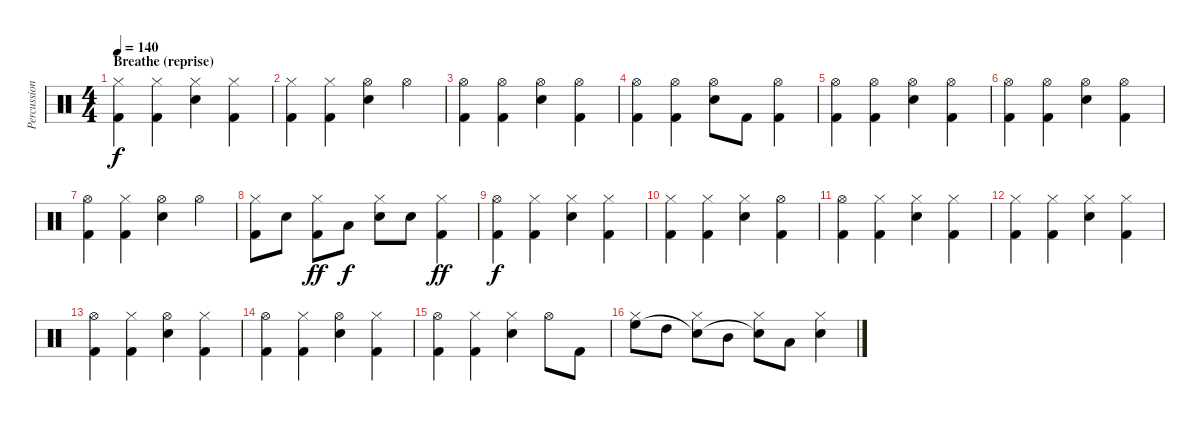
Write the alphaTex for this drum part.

\track ("Percussion" "Percussion") {instrument percussion}
\staff {score}
\articulation defaults
\ts (4 4)
\section ("" "Breathe (reprise)")
\tempo 140
\clef neutral
\ks c
("Hi-Hat (closed)" "Kick (hit) 2").4{dy f} ("Hi-Hat (closed)" "Kick (hit) 2").4 ("Hi-Hat (closed)" "Electric Snare (hit)").4 ("Hi-Hat (closed)" "Kick (hit) 2").4 |
("Hi-Hat (closed)" "Kick (hit) 2").4 ("Hi-Hat (closed)" "Kick (hit) 2").4 ("Hi-Hat (open)" "Electric Snare (hit)").4 "Hi-Hat (open)".4 |
("Hi-Hat (open)" "Kick (hit) 2").4 ("Hi-Hat (open)" "Kick (hit) 2").4 ("Hi-Hat (open)" "Electric Snare (hit)").4 ("Hi-Hat (open)" "Kick (hit) 2").4 |
("Hi-Hat (open)" "Kick (hit) 2").4 ("Hi-Hat (open)" "Kick (hit) 2").4 ("Hi-Hat (open)" "Electric Snare (hit)").8 "Kick (hit) 2".8 ("Hi-Hat (open)" "Kick (hit) 2").4 |
("Hi-Hat (open)" "Kick (hit) 2").4 ("Hi-Hat (open)" "Kick (hit) 2").4 ("Hi-Hat (open)" "Electric Snare (hit)").4 ("Hi-Hat (open)" "Kick (hit) 2").4 |
("Hi-Hat (open)" "Kick (hit) 2").4 ("Hi-Hat (open)" "Kick (hit) 2").4 ("Hi-Hat (open)" "Electric Snare (hit)").4 ("Hi-Hat (open)" "Kick (hit) 2").4 |
("Hi-Hat (open)" "Kick (hit) 2").4 ("Hi-Hat (closed)" "Kick (hit) 2").4 ("Hi-Hat (open)" "Electric Snare (hit)").4 "Hi-Hat (open)".4 |
("Hi-Hat (closed)" "Kick (hit) 2").8 "Electric Snare (hit)".8 ("Hi-Hat (closed)" "Kick (hit) 2").8{dy ff} "Low Tom (hit)".8{dy f} ("Hi-Hat (closed)" "Electric Snare (hit)").8 "Electric Snare (hit)".8 ("Hi-Hat (closed)" "Kick (hit) 2").4{dy ff} |
("Hi-Hat (open)" "Kick (hit) 2").4{dy f} ("Hi-Hat (closed)" "Kick (hit) 2").4 ("Hi-Hat (closed)" "Electric Snare (hit)").4 ("Hi-Hat (closed)" "Kick (hit) 2").4 |
("Hi-Hat (closed)" "Kick (hit) 2").4 ("Hi-Hat (closed)" "Kick (hit) 2").4 ("Hi-Hat (closed)" "Electric Snare (hit)").4 ("Hi-Hat (open)" "Kick (hit) 2").4 |
("Hi-Hat (open)" "Kick (hit) 2").4 ("Hi-Hat (closed)" "Kick (hit) 2").4 ("Hi-Hat (closed)" "Electric Snare (hit)").4 ("Hi-Hat (closed)" "Kick (hit) 2").4 |
("Hi-Hat (closed)" "Kick (hit) 2").4 ("Hi-Hat (closed)" "Kick (hit) 2").4 ("Hi-Hat (closed)" "Electric Snare (hit)").4 ("Hi-Hat (closed)" "Kick (hit) 2").4 |
("Hi-Hat (open)" "Kick (hit) 2").4 ("Hi-Hat (closed)" "Kick (hit) 2").4 ("Hi-Hat (open)" "Electric Snare (hit)").4 ("Hi-Hat (closed)" "Kick (hit) 2").4 |
("Hi-Hat (open)" "Kick (hit) 2").4 ("Hi-Hat (closed)" "Kick (hit) 2").4 ("Hi-Hat (open)" "Electric Snare (hit)").4 ("Hi-Hat (closed)" "Kick (hit) 2").4 |
("Hi-Hat (open)" "Kick (hit) 2").4 ("Hi-Hat (closed)" "Kick (hit) 2").4 ("Hi-Hat (closed)" "Electric Snare (hit)").4 "Hi-Hat (open)".8 "Kick (hit) 2".8 |
("Hi-Hat (closed)" "High Floor Tom (hit)").8 "High Tom (hit)".8 ("Hi-Hat (closed)" "Snare (hit)"{t}).8 "Mid Tom (hit)".8 ("Hi-Hat (closed)" "Snare (hit)"{t}).8 "Low Tom (hit)".8 ("Hi-Hat (closed)" "Electric Snare (hit)").4
